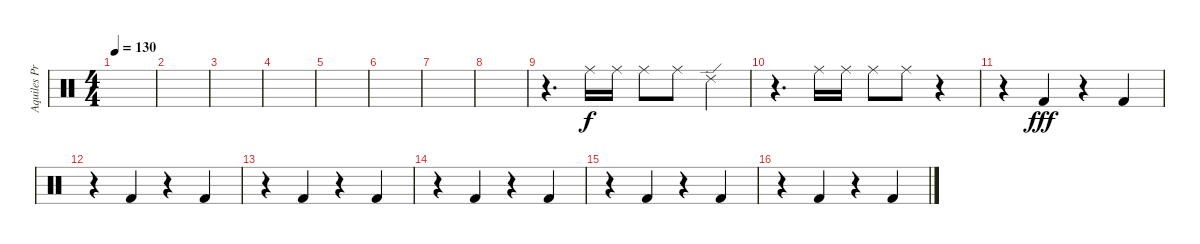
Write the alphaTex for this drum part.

\track ("Aquiles Priester" "Aquiles Pr") {instrument percussion}
\staff {score}
\articulation defaults
\ts (4 4)
\tempo 130
\clef neutral
\ks c
|
|
|
|
|
|
|
|
r.4{d} "Ride (middle)".16 "Ride (middle)".16 "Ride (middle)".8 "Ride (middle)".8 "Ride (edge) 2".4 |
r.4{d} "Ride (middle)".16 "Ride (middle)".16 "Ride (middle)".8 "Ride (middle)".8 r.4 |
r.4 "Kick (hit) 2".4{dy fff} r.4 "Kick (hit) 2".4 |
r.4 "Kick (hit) 2".4 r.4 "Kick (hit) 2".4 |
r.4 "Kick (hit) 2".4 r.4 "Kick (hit) 2".4 |
r.4 "Kick (hit) 2".4 r.4 "Kick (hit) 2".4 |
r.4 "Kick (hit) 2".4 r.4 "Kick (hit) 2".4 |
r.4 "Kick (hit) 2".4 r.4 "Kick (hit) 2".4
